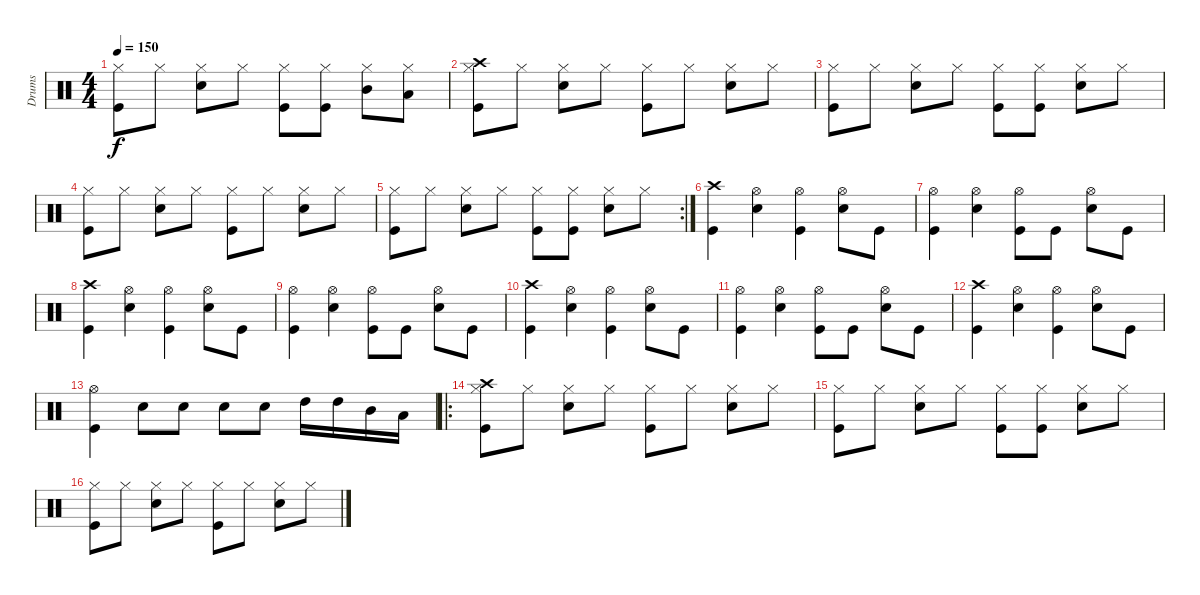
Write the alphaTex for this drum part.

\track ("Drums" "Drums") {instrument percussion}
\staff {score}
\articulation defaults
\ts (4 4)
\tempo 150
\clef neutral
\ks c
("Hi-Hat (closed)" "Kick (hit)").8{dy f} "Hi-Hat (closed)".8 ("Hi-Hat (closed)" "Electric Snare (hit)").8 "Hi-Hat (closed)".8 ("Hi-Hat (closed)" "Kick (hit)").8 ("Hi-Hat (closed)" "Kick (hit)").8 ("Hi-Hat (closed)" "Mid Tom (hit)").8 ("Hi-Hat (closed)" "Low Tom (hit)").8 |
("Crash high (hit)" "Hi-Hat (closed)" "Kick (hit)").8 "Hi-Hat (closed)".8 ("Hi-Hat (closed)" "Electric Snare (hit)").8 "Hi-Hat (closed)".8 ("Hi-Hat (closed)" "Kick (hit)").8 "Hi-Hat (closed)".8 ("Hi-Hat (closed)" "Electric Snare (hit)").8 "Hi-Hat (closed)".8 |
("Hi-Hat (closed)" "Kick (hit)").8 "Hi-Hat (closed)".8 ("Hi-Hat (closed)" "Electric Snare (hit)").8 "Hi-Hat (closed)".8 ("Hi-Hat (closed)" "Kick (hit)").8 ("Hi-Hat (closed)" "Kick (hit)").8 ("Hi-Hat (closed)" "Electric Snare (hit)").8 "Hi-Hat (closed)".8 |
("Hi-Hat (closed)" "Kick (hit)").8 "Hi-Hat (closed)".8 ("Hi-Hat (closed)" "Electric Snare (hit)").8 "Hi-Hat (closed)".8 ("Hi-Hat (closed)" "Kick (hit)").8 "Hi-Hat (closed)".8 ("Hi-Hat (closed)" "Electric Snare (hit)").8 "Hi-Hat (closed)".8 |
\rc 2
("Hi-Hat (closed)" "Kick (hit)").8 "Hi-Hat (closed)".8 ("Hi-Hat (closed)" "Electric Snare (hit)").8 "Hi-Hat (closed)".8 ("Hi-Hat (closed)" "Kick (hit)").8 ("Hi-Hat (closed)" "Kick (hit)").8 ("Hi-Hat (closed)" "Electric Snare (hit)").8 "Hi-Hat (closed)".8 |
("Crash high (hit)" "Kick (hit)").4 ("Hi-Hat (open)" "Snare (hit) 2").4 ("Hi-Hat (open)" "Kick (hit)").4 ("Hi-Hat (open)" "Snare (hit) 2").8 "Kick (hit)".8 |
("Hi-Hat (open)" "Kick (hit)").4 ("Hi-Hat (open)" "Snare (hit) 2").4 ("Hi-Hat (open)" "Kick (hit)").8 "Kick (hit)".8 ("Hi-Hat (open)" "Snare (hit) 2").8 "Kick (hit)".8 |
("Crash high (hit)" "Kick (hit)").4 ("Hi-Hat (open)" "Snare (hit) 2").4 ("Hi-Hat (open)" "Kick (hit)").4 ("Hi-Hat (open)" "Snare (hit) 2").8 "Kick (hit)".8 |
("Hi-Hat (open)" "Kick (hit)").4 ("Hi-Hat (open)" "Snare (hit) 2").4 ("Hi-Hat (open)" "Kick (hit)").8 "Kick (hit)".8 ("Hi-Hat (open)" "Snare (hit) 2").8 "Kick (hit)".8 |
("Crash high (hit)" "Kick (hit)").4 ("Hi-Hat (open)" "Snare (hit) 2").4 ("Hi-Hat (open)" "Kick (hit)").4 ("Hi-Hat (open)" "Snare (hit) 2").8 "Kick (hit)".8 |
("Hi-Hat (open)" "Kick (hit)").4 ("Hi-Hat (open)" "Snare (hit) 2").4 ("Hi-Hat (open)" "Kick (hit)").8 "Kick (hit)".8 ("Hi-Hat (open)" "Snare (hit) 2").8 "Kick (hit)".8 |
("Crash high (hit)" "Kick (hit)").4 ("Hi-Hat (open)" "Snare (hit) 2").4 ("Hi-Hat (open)" "Kick (hit)").4 ("Hi-Hat (open)" "Snare (hit) 2").8 "Kick (hit)".8 |
("Hi-Hat (open)" "Kick (hit)").4 "Snare (hit) 2".8 "Snare (hit) 2".8 "Snare (hit) 2".8 "Snare (hit) 2".8 "High Tom (hit)".16 "High Tom (hit)".16 "Mid Tom (hit)".16 "Low Tom (hit)".16 |
\ro
("Crash high (hit)" "Hi-Hat (closed)" "Kick (hit)").8 "Hi-Hat (closed)".8 ("Hi-Hat (closed)" "Electric Snare (hit)").8 "Hi-Hat (closed)".8 ("Hi-Hat (closed)" "Kick (hit)").8 "Hi-Hat (closed)".8 ("Hi-Hat (closed)" "Electric Snare (hit)").8 "Hi-Hat (closed)".8 |
("Hi-Hat (closed)" "Kick (hit)").8 "Hi-Hat (closed)".8 ("Hi-Hat (closed)" "Electric Snare (hit)").8 "Hi-Hat (closed)".8 ("Hi-Hat (closed)" "Kick (hit)").8 ("Hi-Hat (closed)" "Kick (hit)").8 ("Hi-Hat (closed)" "Electric Snare (hit)").8 "Hi-Hat (closed)".8 |
("Hi-Hat (closed)" "Kick (hit)").8 "Hi-Hat (closed)".8 ("Hi-Hat (closed)" "Electric Snare (hit)").8 "Hi-Hat (closed)".8 ("Hi-Hat (closed)" "Kick (hit)").8 "Hi-Hat (closed)".8 ("Hi-Hat (closed)" "Electric Snare (hit)").8 "Hi-Hat (closed)".8
